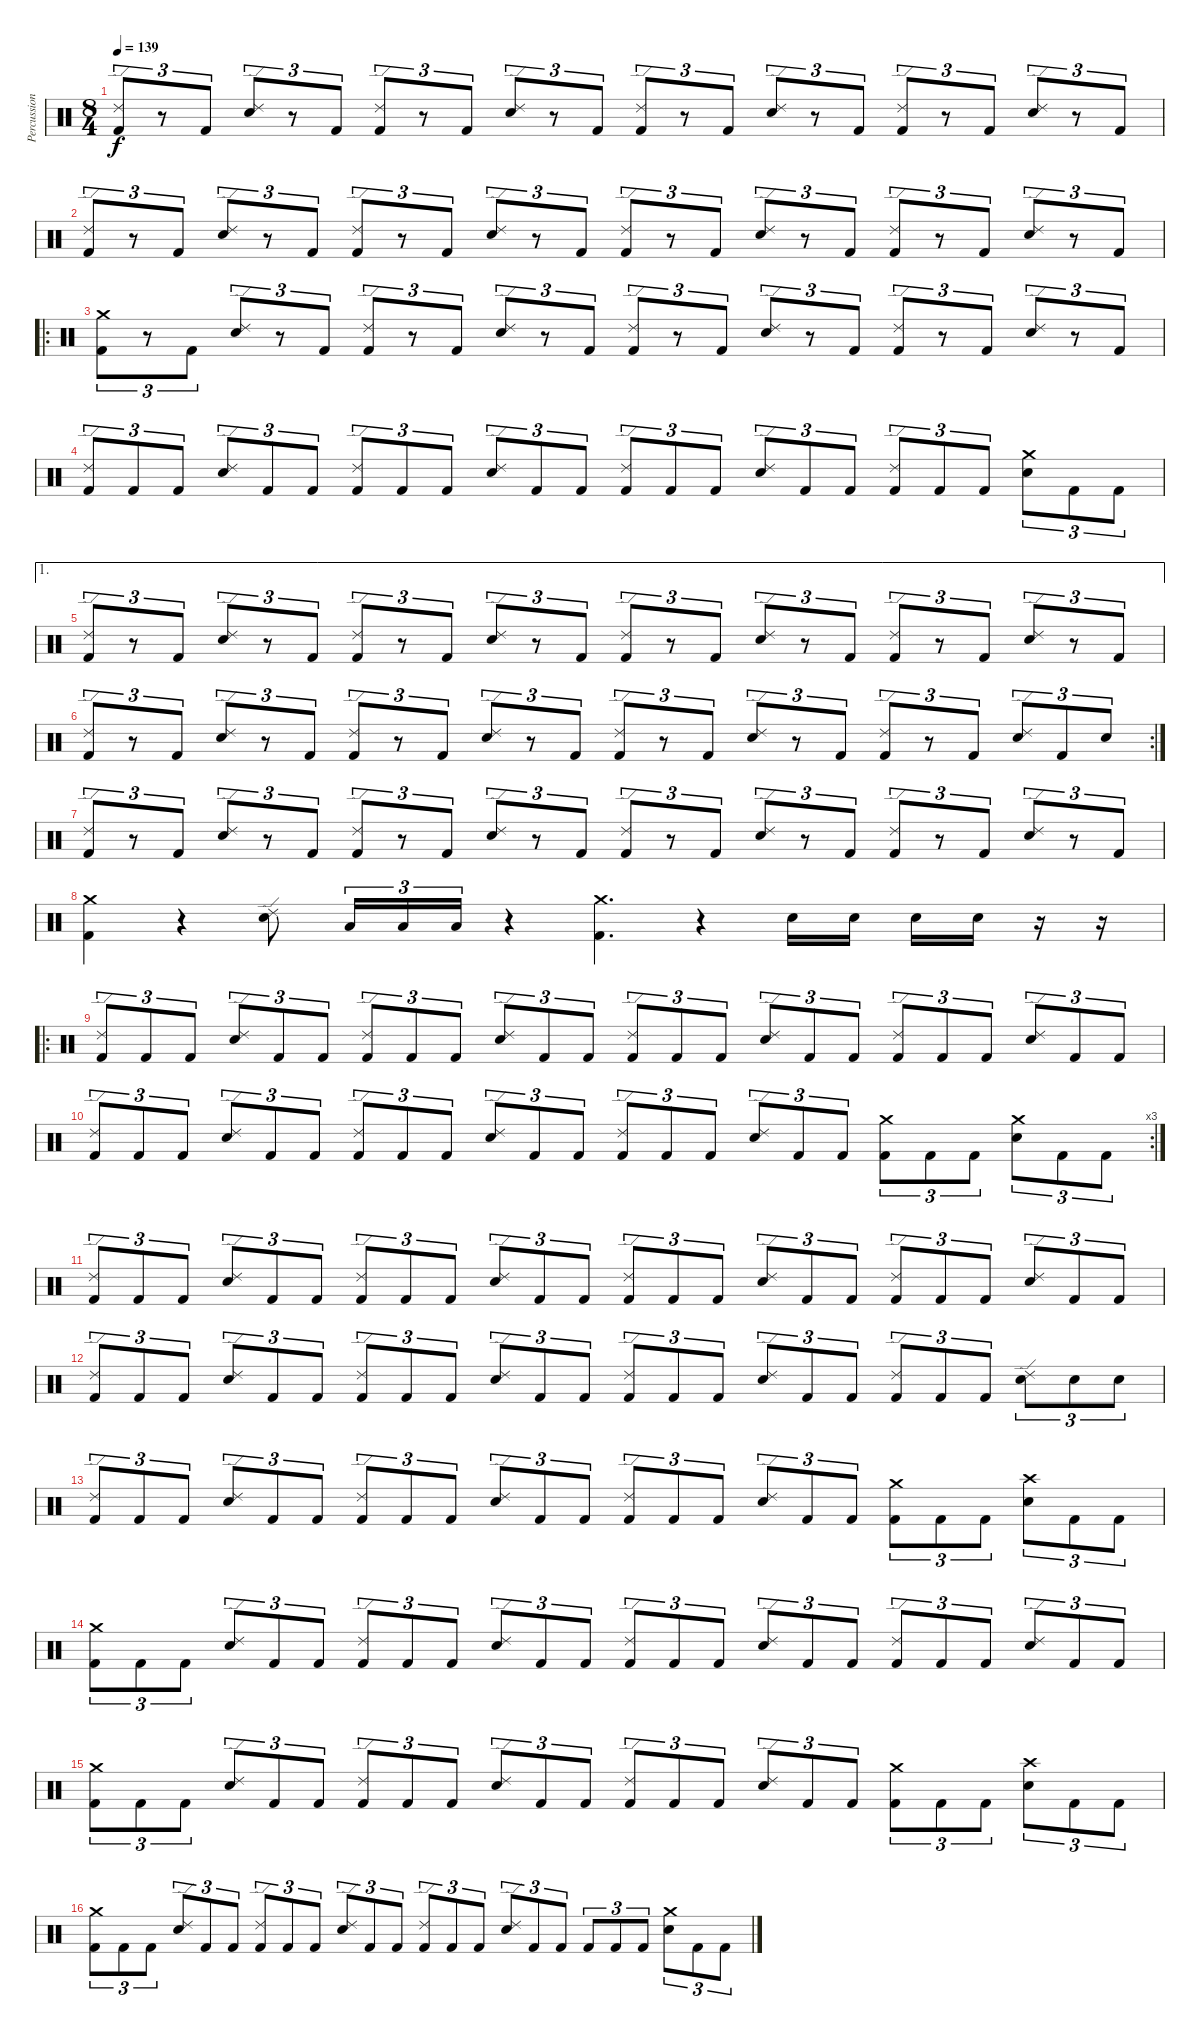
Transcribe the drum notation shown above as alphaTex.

\track ("Percussion" "Percussion") {instrument percussion}
\staff {score}
\articulation defaults
\ts (8 4)
\tempo 139
\clef neutral
\ks c
("Kick (hit) 2" "Ride (edge) 2").8{tu (3 2) dy f} r.8{tu (3 2)} "Kick (hit) 2".8{tu (3 2)} ("Snare (hit) 2" "Ride (edge) 2").8{tu (3 2)} r.8{tu (3 2)} "Kick (hit) 2".8{tu (3 2)} ("Kick (hit) 2" "Ride (edge) 2").8{tu (3 2)} r.8{tu (3 2)} "Kick (hit) 2".8{tu (3 2)} ("Snare (hit) 2" "Ride (edge) 2").8{tu (3 2)} r.8{tu (3 2)} "Kick (hit) 2".8{tu (3 2)} ("Kick (hit) 2" "Ride (edge) 2").8{tu (3 2)} r.8{tu (3 2)} "Kick (hit) 2".8{tu (3 2)} ("Snare (hit) 2" "Ride (edge) 2").8{tu (3 2)} r.8{tu (3 2)} "Kick (hit) 2".8{tu (3 2)} ("Kick (hit) 2" "Ride (edge) 2").8{tu (3 2)} r.8{tu (3 2)} "Kick (hit) 2".8{tu (3 2)} ("Snare (hit) 2" "Ride (edge) 2").8{tu (3 2)} r.8{tu (3 2)} "Kick (hit) 2".8{tu (3 2)} |
("Kick (hit) 2" "Ride (edge) 2").8{tu (3 2)} r.8{tu (3 2)} "Kick (hit) 2".8{tu (3 2)} ("Snare (hit) 2" "Ride (edge) 2").8{tu (3 2)} r.8{tu (3 2)} "Kick (hit) 2".8{tu (3 2)} ("Kick (hit) 2" "Ride (edge) 2").8{tu (3 2)} r.8{tu (3 2)} "Kick (hit) 2".8{tu (3 2)} ("Snare (hit) 2" "Ride (edge) 2").8{tu (3 2)} r.8{tu (3 2)} "Kick (hit) 2".8{tu (3 2)} ("Kick (hit) 2" "Ride (edge) 2").8{tu (3 2)} r.8{tu (3 2)} "Kick (hit) 2".8{tu (3 2)} ("Snare (hit) 2" "Ride (edge) 2").8{tu (3 2)} r.8{tu (3 2)} "Kick (hit) 2".8{tu (3 2)} ("Kick (hit) 2" "Ride (edge) 2").8{tu (3 2)} r.8{tu (3 2)} "Kick (hit) 2".8{tu (3 2)} ("Snare (hit) 2" "Ride (edge) 2").8{tu (3 2)} r.8{tu (3 2)} "Kick (hit) 2".8{tu (3 2)} |
\ro
("Kick (hit) 2" "Crash medium (hit)").8{tu (3 2)} r.8{tu (3 2)} "Kick (hit) 2".8{tu (3 2)} ("Snare (hit) 2" "Ride (edge) 2").8{tu (3 2)} r.8{tu (3 2)} "Kick (hit) 2".8{tu (3 2)} ("Kick (hit) 2" "Ride (edge) 2").8{tu (3 2)} r.8{tu (3 2)} "Kick (hit) 2".8{tu (3 2)} ("Snare (hit) 2" "Ride (edge) 2").8{tu (3 2)} r.8{tu (3 2)} "Kick (hit) 2".8{tu (3 2)} ("Kick (hit) 2" "Ride (edge) 2").8{tu (3 2)} r.8{tu (3 2)} "Kick (hit) 2".8{tu (3 2)} ("Snare (hit) 2" "Ride (edge) 2").8{tu (3 2)} r.8{tu (3 2)} "Kick (hit) 2".8{tu (3 2)} ("Kick (hit) 2" "Ride (edge) 2").8{tu (3 2)} r.8{tu (3 2)} "Kick (hit) 2".8{tu (3 2)} ("Snare (hit) 2" "Ride (edge) 2").8{tu (3 2)} r.8{tu (3 2)} "Kick (hit) 2".8{tu (3 2)} |
("Kick (hit) 2" "Ride (edge) 2").8{tu (3 2)} "Kick (hit) 2".8{tu (3 2)} "Kick (hit) 2".8{tu (3 2)} ("Snare (hit) 2" "Ride (edge) 2").8{tu (3 2)} "Kick (hit) 2".8{tu (3 2)} "Kick (hit) 2".8{tu (3 2)} ("Kick (hit) 2" "Ride (edge) 2").8{tu (3 2)} "Kick (hit) 2".8{tu (3 2)} "Kick (hit) 2".8{tu (3 2)} ("Snare (hit) 2" "Ride (edge) 2").8{tu (3 2)} "Kick (hit) 2".8{tu (3 2)} "Kick (hit) 2".8{tu (3 2)} ("Kick (hit) 2" "Ride (edge) 2").8{tu (3 2)} "Kick (hit) 2".8{tu (3 2)} "Kick (hit) 2".8{tu (3 2)} ("Snare (hit) 2" "Ride (edge) 2").8{tu (3 2)} "Kick (hit) 2".8{tu (3 2)} "Kick (hit) 2".8{tu (3 2)} ("Kick (hit) 2" "Ride (edge) 2").8{tu (3 2)} "Kick (hit) 2".8{tu (3 2)} "Kick (hit) 2".8{tu (3 2)} ("Snare (hit) 2" "Crash medium (hit)").8{tu (3 2)} "Kick (hit) 2".8{tu (3 2)} "Kick (hit) 2".8{tu (3 2)} |
\ae 1
("Kick (hit) 2" "Ride (edge) 2").8{tu (3 2)} r.8{tu (3 2)} "Kick (hit) 2".8{tu (3 2)} ("Snare (hit) 2" "Ride (edge) 2").8{tu (3 2)} r.8{tu (3 2)} "Kick (hit) 2".8{tu (3 2)} ("Kick (hit) 2" "Ride (edge) 2").8{tu (3 2)} r.8{tu (3 2)} "Kick (hit) 2".8{tu (3 2)} ("Snare (hit) 2" "Ride (edge) 2").8{tu (3 2)} r.8{tu (3 2)} "Kick (hit) 2".8{tu (3 2)} ("Kick (hit) 2" "Ride (edge) 2").8{tu (3 2)} r.8{tu (3 2)} "Kick (hit) 2".8{tu (3 2)} ("Snare (hit) 2" "Ride (edge) 2").8{tu (3 2)} r.8{tu (3 2)} "Kick (hit) 2".8{tu (3 2)} ("Kick (hit) 2" "Ride (edge) 2").8{tu (3 2)} r.8{tu (3 2)} "Kick (hit) 2".8{tu (3 2)} ("Snare (hit) 2" "Ride (edge) 2").8{tu (3 2)} r.8{tu (3 2)} "Kick (hit) 2".8{tu (3 2)} |
\rc 2
("Kick (hit) 2" "Ride (edge) 2").8{tu (3 2)} r.8{tu (3 2)} "Kick (hit) 2".8{tu (3 2)} ("Snare (hit) 2" "Ride (edge) 2").8{tu (3 2)} r.8{tu (3 2)} "Kick (hit) 2".8{tu (3 2)} ("Kick (hit) 2" "Ride (edge) 2").8{tu (3 2)} r.8{tu (3 2)} "Kick (hit) 2".8{tu (3 2)} ("Snare (hit) 2" "Ride (edge) 2").8{tu (3 2)} r.8{tu (3 2)} "Kick (hit) 2".8{tu (3 2)} ("Kick (hit) 2" "Ride (edge) 2").8{tu (3 2)} r.8{tu (3 2)} "Kick (hit) 2".8{tu (3 2)} ("Snare (hit) 2" "Ride (edge) 2").8{tu (3 2)} r.8{tu (3 2)} "Kick (hit) 2".8{tu (3 2)} ("Kick (hit) 2" "Ride (edge) 2").8{tu (3 2)} r.8{tu (3 2)} "Kick (hit) 2".8{tu (3 2)} ("Snare (hit) 2" "Ride (edge) 2").8{tu (3 2)} "Kick (hit) 2".8{tu (3 2)} "Snare (hit) 2".8{tu (3 2)} |
("Kick (hit) 2" "Ride (edge) 2").8{tu (3 2)} r.8{tu (3 2)} "Kick (hit) 2".8{tu (3 2)} ("Snare (hit) 2" "Ride (edge) 2").8{tu (3 2)} r.8{tu (3 2)} "Kick (hit) 2".8{tu (3 2)} ("Kick (hit) 2" "Ride (edge) 2").8{tu (3 2)} r.8{tu (3 2)} "Kick (hit) 2".8{tu (3 2)} ("Snare (hit) 2" "Ride (edge) 2").8{tu (3 2)} r.8{tu (3 2)} "Kick (hit) 2".8{tu (3 2)} ("Kick (hit) 2" "Ride (edge) 2").8{tu (3 2)} r.8{tu (3 2)} "Kick (hit) 2".8{tu (3 2)} ("Snare (hit) 2" "Ride (edge) 2").8{tu (3 2)} r.8{tu (3 2)} "Kick (hit) 2".8{tu (3 2)} ("Kick (hit) 2" "Ride (edge) 2").8{tu (3 2)} r.8{tu (3 2)} "Kick (hit) 2".8{tu (3 2)} ("Snare (hit) 2" "Ride (edge) 2").8{tu (3 2)} r.8{tu (3 2)} "Kick (hit) 2".8{tu (3 2)} |
("Kick (hit) 2" "Crash medium (hit)").4 r.4 ("Snare (hit) 2" "Ride (edge) 2").8 "Low Tom (hit)".16{tu (3 2)} "Low Tom (hit)".16{tu (3 2)} "Low Tom (hit)".16{tu (3 2)} r.4 ("Kick (hit) 2" "Crash medium (hit)").4{d} r.4 "Snare (hit) 2".16 "Snare (hit) 2".16 "Snare (hit) 2".16 "Snare (hit) 2".16 r.16 r.16 |
\ro
("Kick (hit) 2" "Ride (edge) 2").8{tu (3 2)} "Kick (hit) 2".8{tu (3 2)} "Kick (hit) 2".8{tu (3 2)} ("Snare (hit) 2" "Ride (edge) 2").8{tu (3 2)} "Kick (hit) 2".8{tu (3 2)} "Kick (hit) 2".8{tu (3 2)} ("Kick (hit) 2" "Ride (edge) 2").8{tu (3 2)} "Kick (hit) 2".8{tu (3 2)} "Kick (hit) 2".8{tu (3 2)} ("Snare (hit) 2" "Ride (edge) 2").8{tu (3 2)} "Kick (hit) 2".8{tu (3 2)} "Kick (hit) 2".8{tu (3 2)} ("Kick (hit) 2" "Ride (edge) 2").8{tu (3 2)} "Kick (hit) 2".8{tu (3 2)} "Kick (hit) 2".8{tu (3 2)} ("Snare (hit) 2" "Ride (edge) 2").8{tu (3 2)} "Kick (hit) 2".8{tu (3 2)} "Kick (hit) 2".8{tu (3 2)} ("Kick (hit) 2" "Ride (edge) 2").8{tu (3 2)} "Kick (hit) 2".8{tu (3 2)} "Kick (hit) 2".8{tu (3 2)} ("Snare (hit) 2" "Ride (edge) 2").8{tu (3 2)} "Kick (hit) 2".8{tu (3 2)} "Kick (hit) 2".8{tu (3 2)} |
\rc 3
("Kick (hit) 2" "Ride (edge) 2").8{tu (3 2)} "Kick (hit) 2".8{tu (3 2)} "Kick (hit) 2".8{tu (3 2)} ("Snare (hit) 2" "Ride (edge) 2").8{tu (3 2)} "Kick (hit) 2".8{tu (3 2)} "Kick (hit) 2".8{tu (3 2)} ("Kick (hit) 2" "Ride (edge) 2").8{tu (3 2)} "Kick (hit) 2".8{tu (3 2)} "Kick (hit) 2".8{tu (3 2)} ("Snare (hit) 2" "Ride (edge) 2").8{tu (3 2)} "Kick (hit) 2".8{tu (3 2)} "Kick (hit) 2".8{tu (3 2)} ("Kick (hit) 2" "Ride (edge) 2").8{tu (3 2)} "Kick (hit) 2".8{tu (3 2)} "Kick (hit) 2".8{tu (3 2)} ("Snare (hit) 2" "Ride (edge) 2").8{tu (3 2)} "Kick (hit) 2".8{tu (3 2)} "Kick (hit) 2".8{tu (3 2)} ("Kick (hit) 2" "Crash medium (hit)").8{tu (3 2)} "Kick (hit) 2".8{tu (3 2)} "Kick (hit) 2".8{tu (3 2)} ("Snare (hit) 2" "Crash medium (hit)").8{tu (3 2)} "Kick (hit) 2".8{tu (3 2)} "Kick (hit) 2".8{tu (3 2)} |
("Kick (hit) 2" "Ride (edge) 2").8{tu (3 2)} "Kick (hit) 2".8{tu (3 2)} "Kick (hit) 2".8{tu (3 2)} ("Snare (hit) 2" "Ride (edge) 2").8{tu (3 2)} "Kick (hit) 2".8{tu (3 2)} "Kick (hit) 2".8{tu (3 2)} ("Kick (hit) 2" "Ride (edge) 2").8{tu (3 2)} "Kick (hit) 2".8{tu (3 2)} "Kick (hit) 2".8{tu (3 2)} ("Snare (hit) 2" "Ride (edge) 2").8{tu (3 2)} "Kick (hit) 2".8{tu (3 2)} "Kick (hit) 2".8{tu (3 2)} ("Kick (hit) 2" "Ride (edge) 2").8{tu (3 2)} "Kick (hit) 2".8{tu (3 2)} "Kick (hit) 2".8{tu (3 2)} ("Snare (hit) 2" "Ride (edge) 2").8{tu (3 2)} "Kick (hit) 2".8{tu (3 2)} "Kick (hit) 2".8{tu (3 2)} ("Kick (hit) 2" "Ride (edge) 2").8{tu (3 2)} "Kick (hit) 2".8{tu (3 2)} "Kick (hit) 2".8{tu (3 2)} ("Snare (hit) 2" "Ride (edge) 2").8{tu (3 2)} "Kick (hit) 2".8{tu (3 2)} "Kick (hit) 2".8{tu (3 2)} |
("Kick (hit) 2" "Ride (edge) 2").8{tu (3 2)} "Kick (hit) 2".8{tu (3 2)} "Kick (hit) 2".8{tu (3 2)} ("Snare (hit) 2" "Ride (edge) 2").8{tu (3 2)} "Kick (hit) 2".8{tu (3 2)} "Kick (hit) 2".8{tu (3 2)} ("Kick (hit) 2" "Ride (edge) 2").8{tu (3 2)} "Kick (hit) 2".8{tu (3 2)} "Kick (hit) 2".8{tu (3 2)} ("Snare (hit) 2" "Ride (edge) 2").8{tu (3 2)} "Kick (hit) 2".8{tu (3 2)} "Kick (hit) 2".8{tu (3 2)} ("Kick (hit) 2" "Ride (edge) 2").8{tu (3 2)} "Kick (hit) 2".8{tu (3 2)} "Kick (hit) 2".8{tu (3 2)} ("Snare (hit) 2" "Ride (edge) 2").8{tu (3 2)} "Kick (hit) 2".8{tu (3 2)} "Kick (hit) 2".8{tu (3 2)} ("Kick (hit) 2" "Ride (edge) 2").8{tu (3 2)} "Kick (hit) 2".8{tu (3 2)} "Kick (hit) 2".8{tu (3 2)} ("Snare (hit) 2" "Ride (edge) 2").8{tu (3 2)} "Snare (hit) 2".8{tu (3 2)} "Snare (hit) 2".8{tu (3 2)} |
("Kick (hit) 2" "Ride (edge) 2").8{tu (3 2)} "Kick (hit) 2".8{tu (3 2)} "Kick (hit) 2".8{tu (3 2)} ("Snare (hit) 2" "Ride (edge) 2").8{tu (3 2)} "Kick (hit) 2".8{tu (3 2)} "Kick (hit) 2".8{tu (3 2)} ("Kick (hit) 2" "Ride (edge) 2").8{tu (3 2)} "Kick (hit) 2".8{tu (3 2)} "Kick (hit) 2".8{tu (3 2)} ("Snare (hit) 2" "Ride (edge) 2").8{tu (3 2)} "Kick (hit) 2".8{tu (3 2)} "Kick (hit) 2".8{tu (3 2)} ("Kick (hit) 2" "Ride (edge) 2").8{tu (3 2)} "Kick (hit) 2".8{tu (3 2)} "Kick (hit) 2".8{tu (3 2)} ("Snare (hit) 2" "Ride (edge) 2").8{tu (3 2)} "Kick (hit) 2".8{tu (3 2)} "Kick (hit) 2".8{tu (3 2)} ("Kick (hit) 2" "Crash medium (hit)").8{tu (3 2)} "Kick (hit) 2".8{tu (3 2)} "Kick (hit) 2".8{tu (3 2)} ("Snare (hit) 2" "Crash high (hit)").8{tu (3 2)} "Kick (hit) 2".8{tu (3 2)} "Kick (hit) 2".8{tu (3 2)} |
("Kick (hit) 2" "Crash medium (hit)").8{tu (3 2)} "Kick (hit) 2".8{tu (3 2)} "Kick (hit) 2".8{tu (3 2)} ("Snare (hit) 2" "Ride (edge) 2").8{tu (3 2)} "Kick (hit) 2".8{tu (3 2)} "Kick (hit) 2".8{tu (3 2)} ("Kick (hit) 2" "Ride (edge) 2").8{tu (3 2)} "Kick (hit) 2".8{tu (3 2)} "Kick (hit) 2".8{tu (3 2)} ("Snare (hit) 2" "Ride (edge) 2").8{tu (3 2)} "Kick (hit) 2".8{tu (3 2)} "Kick (hit) 2".8{tu (3 2)} ("Kick (hit) 2" "Ride (edge) 2").8{tu (3 2)} "Kick (hit) 2".8{tu (3 2)} "Kick (hit) 2".8{tu (3 2)} ("Snare (hit) 2" "Ride (edge) 2").8{tu (3 2)} "Kick (hit) 2".8{tu (3 2)} "Kick (hit) 2".8{tu (3 2)} ("Kick (hit) 2" "Ride (edge) 2").8{tu (3 2)} "Kick (hit) 2".8{tu (3 2)} "Kick (hit) 2".8{tu (3 2)} ("Snare (hit) 2" "Ride (edge) 2").8{tu (3 2)} "Kick (hit) 2".8{tu (3 2)} "Kick (hit) 2".8{tu (3 2)} |
("Kick (hit) 2" "Crash medium (hit)").8{tu (3 2)} "Kick (hit) 2".8{tu (3 2)} "Kick (hit) 2".8{tu (3 2)} ("Snare (hit) 2" "Ride (edge) 2").8{tu (3 2)} "Kick (hit) 2".8{tu (3 2)} "Kick (hit) 2".8{tu (3 2)} ("Kick (hit) 2" "Ride (edge) 2").8{tu (3 2)} "Kick (hit) 2".8{tu (3 2)} "Kick (hit) 2".8{tu (3 2)} ("Snare (hit) 2" "Ride (edge) 2").8{tu (3 2)} "Kick (hit) 2".8{tu (3 2)} "Kick (hit) 2".8{tu (3 2)} ("Kick (hit) 2" "Ride (edge) 2").8{tu (3 2)} "Kick (hit) 2".8{tu (3 2)} "Kick (hit) 2".8{tu (3 2)} ("Snare (hit) 2" "Ride (edge) 2").8{tu (3 2)} "Kick (hit) 2".8{tu (3 2)} "Kick (hit) 2".8{tu (3 2)} ("Kick (hit) 2" "Crash medium (hit)").8{tu (3 2)} "Kick (hit) 2".8{tu (3 2)} "Kick (hit) 2".8{tu (3 2)} ("Snare (hit) 2" "Crash high (hit)").8{tu (3 2)} "Kick (hit) 2".8{tu (3 2)} "Kick (hit) 2".8{tu (3 2)} |
("Kick (hit) 2" "Crash medium (hit)").8{tu (3 2)} "Kick (hit) 2".8{tu (3 2)} "Kick (hit) 2".8{tu (3 2)} ("Snare (hit) 2" "Ride (edge) 2").8{tu (3 2)} "Kick (hit) 2".8{tu (3 2)} "Kick (hit) 2".8{tu (3 2)} ("Kick (hit) 2" "Ride (edge) 2").8{tu (3 2)} "Kick (hit) 2".8{tu (3 2)} "Kick (hit) 2".8{tu (3 2)} ("Snare (hit) 2" "Ride (edge) 2").8{tu (3 2)} "Kick (hit) 2".8{tu (3 2)} "Kick (hit) 2".8{tu (3 2)} ("Kick (hit) 2" "Ride (edge) 2").8{tu (3 2)} "Kick (hit) 2".8{tu (3 2)} "Kick (hit) 2".8{tu (3 2)} ("Snare (hit) 2" "Ride (edge) 2").8{tu (3 2)} "Kick (hit) 2".8{tu (3 2)} "Kick (hit) 2".8{tu (3 2)} "Kick (hit) 2".8{tu (3 2)} "Kick (hit) 2".8{tu (3 2)} "Kick (hit) 2".8{tu (3 2)} ("Snare (hit) 2" "Crash medium (hit)").8{tu (3 2)} "Kick (hit) 2".8{tu (3 2)} "Kick (hit) 2".8{tu (3 2)}
